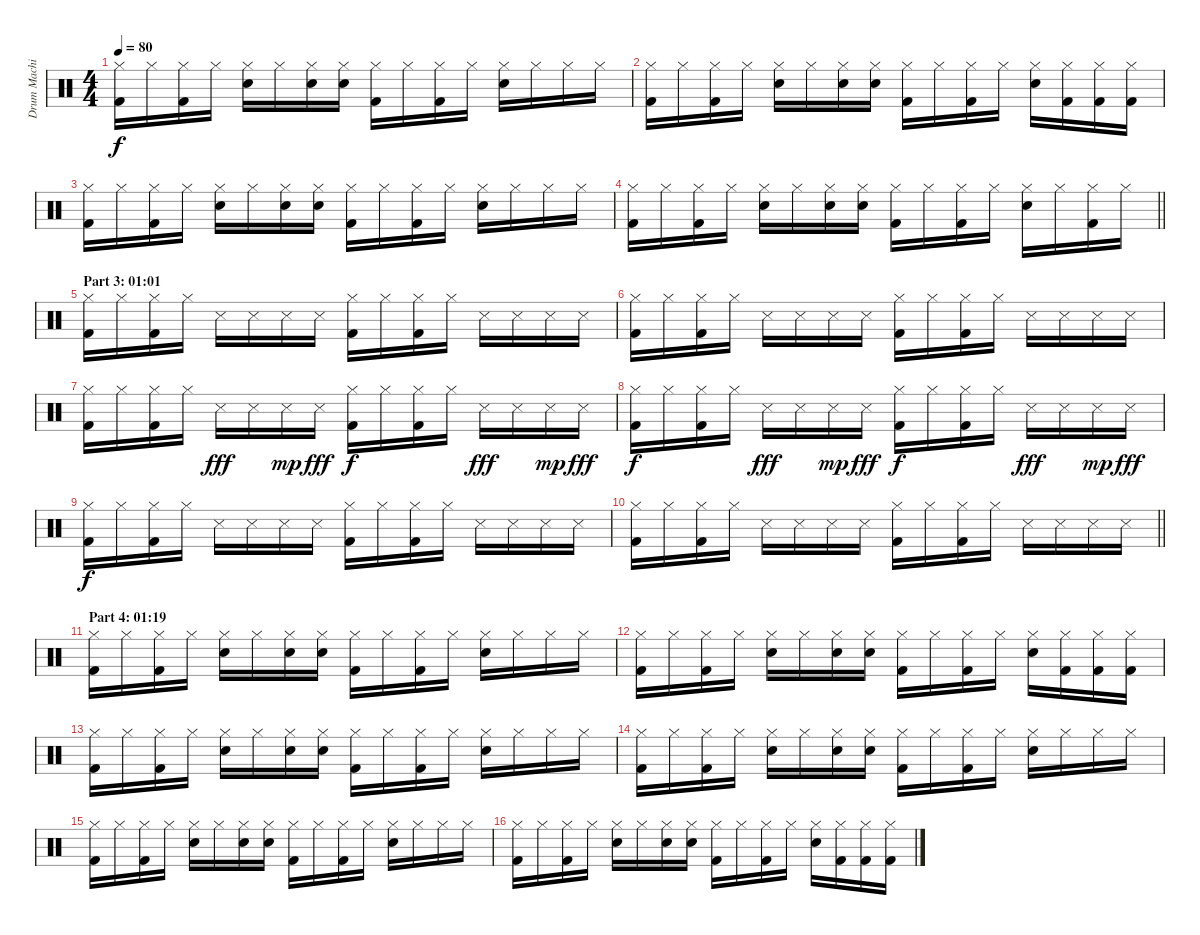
\track ("Drum Machine" "Drum Machi") {instrument percussion}
\staff {score}
\articulation defaults
\ts (4 4)
\tempo 80
\clef neutral
\ks c
("Hi-Hat (closed)" "Kick (hit) 2").16{dy f} "Hi-Hat (closed)".16 ("Hi-Hat (closed)" "Kick (hit) 2").16 "Hi-Hat (closed)".16 ("Hi-Hat (closed)" "Electric Snare (hit)").16 "Hi-Hat (closed)".16 ("Hi-Hat (closed)" "Electric Snare (hit)").16 ("Hi-Hat (closed)" "Electric Snare (hit)").16 ("Hi-Hat (closed)" "Kick (hit) 2").16 "Hi-Hat (closed)".16 ("Hi-Hat (closed)" "Kick (hit) 2").16 "Hi-Hat (closed)".16 ("Hi-Hat (closed)" "Electric Snare (hit)").16 "Hi-Hat (closed)".16 "Hi-Hat (closed)".16 "Hi-Hat (closed)".16 |
("Hi-Hat (closed)" "Kick (hit) 2").16 "Hi-Hat (closed)".16 ("Hi-Hat (closed)" "Kick (hit) 2").16 "Hi-Hat (closed)".16 ("Hi-Hat (closed)" "Electric Snare (hit)").16 "Hi-Hat (closed)".16 ("Hi-Hat (closed)" "Electric Snare (hit)").16 ("Hi-Hat (closed)" "Electric Snare (hit)").16 ("Hi-Hat (closed)" "Kick (hit) 2").16 "Hi-Hat (closed)".16 ("Hi-Hat (closed)" "Kick (hit) 2").16 "Hi-Hat (closed)".16 ("Hi-Hat (closed)" "Electric Snare (hit)").16 ("Hi-Hat (closed)" "Kick (hit) 2").16 ("Hi-Hat (closed)" "Kick (hit) 2").16 ("Hi-Hat (closed)" "Kick (hit) 2").16 |
("Hi-Hat (closed)" "Kick (hit) 2").16 "Hi-Hat (closed)".16 ("Hi-Hat (closed)" "Kick (hit) 2").16 "Hi-Hat (closed)".16 ("Hi-Hat (closed)" "Electric Snare (hit)").16 "Hi-Hat (closed)".16 ("Hi-Hat (closed)" "Electric Snare (hit)").16 ("Hi-Hat (closed)" "Electric Snare (hit)").16 ("Hi-Hat (closed)" "Kick (hit) 2").16 "Hi-Hat (closed)".16 ("Hi-Hat (closed)" "Kick (hit) 2").16 "Hi-Hat (closed)".16 ("Hi-Hat (closed)" "Electric Snare (hit)").16 "Hi-Hat (closed)".16 "Hi-Hat (closed)".16 "Hi-Hat (closed)".16 |
\barLineRight lightlight
("Hi-Hat (closed)" "Kick (hit) 2").16 "Hi-Hat (closed)".16 ("Hi-Hat (closed)" "Kick (hit) 2").16 "Hi-Hat (closed)".16 ("Hi-Hat (closed)" "Electric Snare (hit)").16 "Hi-Hat (closed)".16 ("Hi-Hat (closed)" "Electric Snare (hit)").16 ("Hi-Hat (closed)" "Electric Snare (hit)").16 ("Hi-Hat (closed)" "Kick (hit) 2").16 "Hi-Hat (closed)".16 ("Hi-Hat (closed)" "Kick (hit) 2").16 "Hi-Hat (closed)".16 ("Hi-Hat (closed)" "Electric Snare (hit)").16 "Hi-Hat (closed)".16 ("Hi-Hat (closed)" "Kick (hit) 2").16 "Hi-Hat (closed)".16 |
\section ("" "Part 3: 01:01")
("Hi-Hat (closed)" "Kick (hit) 2").16 "Hi-Hat (closed)".16 ("Hi-Hat (closed)" "Kick (hit) 2").16 "Hi-Hat (closed)".16 "Metronome (hit)".16 "Metronome (hit)".16 "Metronome (hit)".16 "Metronome (hit)".16 ("Hi-Hat (closed)" "Kick (hit) 2").16 "Hi-Hat (closed)".16 ("Hi-Hat (closed)" "Kick (hit) 2").16 "Hi-Hat (closed)".16 "Metronome (hit)".16 "Metronome (hit)".16 "Metronome (hit)".16 "Metronome (hit)".16 |
("Hi-Hat (closed)" "Kick (hit) 2").16 "Hi-Hat (closed)".16 ("Hi-Hat (closed)" "Kick (hit) 2").16 "Hi-Hat (closed)".16 "Metronome (hit)".16 "Metronome (hit)".16 "Metronome (hit)".16 "Metronome (hit)".16 ("Hi-Hat (closed)" "Kick (hit) 2").16 "Hi-Hat (closed)".16 ("Hi-Hat (closed)" "Kick (hit) 2").16 "Hi-Hat (closed)".16 "Metronome (hit)".16 "Metronome (hit)".16 "Metronome (hit)".16 "Metronome (hit)".16 |
("Hi-Hat (closed)" "Kick (hit) 2").16 "Hi-Hat (closed)".16 ("Hi-Hat (closed)" "Kick (hit) 2").16 "Hi-Hat (closed)".16 "Metronome (hit)".16{dy fff} "Metronome (hit)".16 "Metronome (hit)".16{dy mp} "Metronome (hit)".16{dy fff} ("Hi-Hat (closed)" "Kick (hit) 2").16{dy f} "Hi-Hat (closed)".16 ("Hi-Hat (closed)" "Kick (hit) 2").16 "Hi-Hat (closed)".16 "Metronome (hit)".16{dy fff} "Metronome (hit)".16 "Metronome (hit)".16{dy mp} "Metronome (hit)".16{dy fff} |
("Hi-Hat (closed)" "Kick (hit) 2").16{dy f} "Hi-Hat (closed)".16 ("Hi-Hat (closed)" "Kick (hit) 2").16 "Hi-Hat (closed)".16 "Metronome (hit)".16{dy fff} "Metronome (hit)".16 "Metronome (hit)".16{dy mp} "Metronome (hit)".16{dy fff} ("Hi-Hat (closed)" "Kick (hit) 2").16{dy f} "Hi-Hat (closed)".16 ("Hi-Hat (closed)" "Kick (hit) 2").16 "Hi-Hat (closed)".16 "Metronome (hit)".16{dy fff} "Metronome (hit)".16 "Metronome (hit)".16{dy mp} "Metronome (hit)".16{dy fff} |
("Hi-Hat (closed)" "Kick (hit) 2").16{dy f} "Hi-Hat (closed)".16 ("Hi-Hat (closed)" "Kick (hit) 2").16 "Hi-Hat (closed)".16 "Metronome (hit)".16 "Metronome (hit)".16 "Metronome (hit)".16 "Metronome (hit)".16 ("Hi-Hat (closed)" "Kick (hit) 2").16 "Hi-Hat (closed)".16 ("Hi-Hat (closed)" "Kick (hit) 2").16 "Hi-Hat (closed)".16 "Metronome (hit)".16 "Metronome (hit)".16 "Metronome (hit)".16 "Metronome (hit)".16 |
\barLineRight lightlight
("Hi-Hat (closed)" "Kick (hit) 2").16 "Hi-Hat (closed)".16 ("Hi-Hat (closed)" "Kick (hit) 2").16 "Hi-Hat (closed)".16 "Metronome (hit)".16 "Metronome (hit)".16 "Metronome (hit)".16 "Metronome (hit)".16 ("Hi-Hat (closed)" "Kick (hit) 2").16 "Hi-Hat (closed)".16 ("Hi-Hat (closed)" "Kick (hit) 2").16 "Hi-Hat (closed)".16 "Metronome (hit)".16 "Metronome (hit)".16 "Metronome (hit)".16 "Metronome (hit)".16 |
\section ("" "Part 4: 01:19")
("Hi-Hat (closed)" "Kick (hit) 2").16 "Hi-Hat (closed)".16 ("Hi-Hat (closed)" "Kick (hit) 2").16 "Hi-Hat (closed)".16 ("Hi-Hat (closed)" "Electric Snare (hit)").16 "Hi-Hat (closed)".16 ("Hi-Hat (closed)" "Electric Snare (hit)").16 ("Hi-Hat (closed)" "Electric Snare (hit)").16 ("Hi-Hat (closed)" "Kick (hit) 2").16 "Hi-Hat (closed)".16 ("Hi-Hat (closed)" "Kick (hit) 2").16 "Hi-Hat (closed)".16 ("Hi-Hat (closed)" "Electric Snare (hit)").16 "Hi-Hat (closed)".16 "Hi-Hat (closed)".16 "Hi-Hat (closed)".16 |
("Hi-Hat (closed)" "Kick (hit) 2").16 "Hi-Hat (closed)".16 ("Hi-Hat (closed)" "Kick (hit) 2").16 "Hi-Hat (closed)".16 ("Hi-Hat (closed)" "Electric Snare (hit)").16 "Hi-Hat (closed)".16 ("Hi-Hat (closed)" "Electric Snare (hit)").16 ("Hi-Hat (closed)" "Electric Snare (hit)").16 ("Hi-Hat (closed)" "Kick (hit) 2").16 "Hi-Hat (closed)".16 ("Hi-Hat (closed)" "Kick (hit) 2").16 "Hi-Hat (closed)".16 ("Hi-Hat (closed)" "Electric Snare (hit)").16 ("Hi-Hat (closed)" "Kick (hit) 2").16 ("Hi-Hat (closed)" "Kick (hit) 2").16 ("Hi-Hat (closed)" "Kick (hit) 2").16 |
("Hi-Hat (closed)" "Kick (hit) 2").16 "Hi-Hat (closed)".16 ("Hi-Hat (closed)" "Kick (hit) 2").16 "Hi-Hat (closed)".16 ("Hi-Hat (closed)" "Electric Snare (hit)").16 "Hi-Hat (closed)".16 ("Hi-Hat (closed)" "Electric Snare (hit)").16 ("Hi-Hat (closed)" "Electric Snare (hit)").16 ("Hi-Hat (closed)" "Kick (hit) 2").16 "Hi-Hat (closed)".16 ("Hi-Hat (closed)" "Kick (hit) 2").16 "Hi-Hat (closed)".16 ("Hi-Hat (closed)" "Electric Snare (hit)").16 "Hi-Hat (closed)".16 "Hi-Hat (closed)".16 "Hi-Hat (closed)".16 |
("Hi-Hat (closed)" "Kick (hit) 2").16 "Hi-Hat (closed)".16 ("Hi-Hat (closed)" "Kick (hit) 2").16 "Hi-Hat (closed)".16 ("Hi-Hat (closed)" "Electric Snare (hit)").16 "Hi-Hat (closed)".16 ("Hi-Hat (closed)" "Electric Snare (hit)").16 ("Hi-Hat (closed)" "Electric Snare (hit)").16 ("Hi-Hat (closed)" "Kick (hit) 2").16 "Hi-Hat (closed)".16 ("Hi-Hat (closed)" "Kick (hit) 2").16 "Hi-Hat (closed)".16 ("Hi-Hat (closed)" "Electric Snare (hit)").16 "Hi-Hat (closed)".16 "Hi-Hat (closed)".16 "Hi-Hat (closed)".16 |
("Hi-Hat (closed)" "Kick (hit) 2").16 "Hi-Hat (closed)".16 ("Hi-Hat (closed)" "Kick (hit) 2").16 "Hi-Hat (closed)".16 ("Hi-Hat (closed)" "Electric Snare (hit)").16 "Hi-Hat (closed)".16 ("Hi-Hat (closed)" "Electric Snare (hit)").16 ("Hi-Hat (closed)" "Electric Snare (hit)").16 ("Hi-Hat (closed)" "Kick (hit) 2").16 "Hi-Hat (closed)".16 ("Hi-Hat (closed)" "Kick (hit) 2").16 "Hi-Hat (closed)".16 ("Hi-Hat (closed)" "Electric Snare (hit)").16 "Hi-Hat (closed)".16 "Hi-Hat (closed)".16 "Hi-Hat (closed)".16 |
("Hi-Hat (closed)" "Kick (hit) 2").16 "Hi-Hat (closed)".16 ("Hi-Hat (closed)" "Kick (hit) 2").16 "Hi-Hat (closed)".16 ("Hi-Hat (closed)" "Electric Snare (hit)").16 "Hi-Hat (closed)".16 ("Hi-Hat (closed)" "Electric Snare (hit)").16 ("Hi-Hat (closed)" "Electric Snare (hit)").16 ("Hi-Hat (closed)" "Kick (hit) 2").16 "Hi-Hat (closed)".16 ("Hi-Hat (closed)" "Kick (hit) 2").16 "Hi-Hat (closed)".16 ("Hi-Hat (closed)" "Electric Snare (hit)").16 ("Hi-Hat (closed)" "Kick (hit) 2").16 ("Hi-Hat (closed)" "Kick (hit) 2").16 ("Hi-Hat (closed)" "Kick (hit) 2").16
